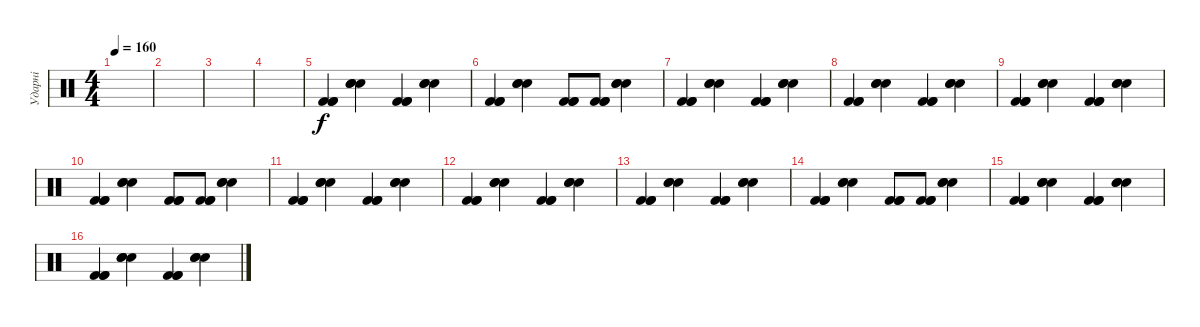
\track ("Ударні" "Ударні") {instrument percussion}
\staff {score}
\articulation defaults
\ts (4 4)
\tempo 160
\clef neutral
\ks c
|
|
|
|
("Kick (hit) 2" "Kick (hit) 2" "Kick (hit) 2").4 ("Snare (hit) 2" "Snare (hit) 2" "Snare (hit) 2").4 ("Kick (hit) 2" "Kick (hit) 2" "Kick (hit) 2").4 ("Snare (hit) 2" "Snare (hit) 2" "Snare (hit) 2").4 |
("Kick (hit) 2" "Kick (hit) 2" "Kick (hit) 2").4 ("Snare (hit) 2" "Snare (hit) 2" "Snare (hit) 2").4 ("Kick (hit) 2" "Kick (hit) 2" "Kick (hit) 2").8 ("Kick (hit) 2" "Kick (hit) 2" "Kick (hit) 2").8 ("Snare (hit) 2" "Snare (hit) 2" "Snare (hit) 2").4 |
("Kick (hit) 2" "Kick (hit) 2" "Kick (hit) 2").4 ("Snare (hit) 2" "Snare (hit) 2" "Snare (hit) 2").4 ("Kick (hit) 2" "Kick (hit) 2" "Kick (hit) 2").4 ("Snare (hit) 2" "Snare (hit) 2" "Snare (hit) 2").4 |
("Kick (hit) 2" "Kick (hit) 2" "Kick (hit) 2").4 ("Snare (hit) 2" "Snare (hit) 2" "Snare (hit) 2").4 ("Kick (hit) 2" "Kick (hit) 2" "Kick (hit) 2").4 ("Snare (hit) 2" "Snare (hit) 2" "Snare (hit) 2").4 |
("Kick (hit) 2" "Kick (hit) 2" "Kick (hit) 2").4 ("Snare (hit) 2" "Snare (hit) 2" "Snare (hit) 2").4 ("Kick (hit) 2" "Kick (hit) 2" "Kick (hit) 2").4 ("Snare (hit) 2" "Snare (hit) 2" "Snare (hit) 2").4 |
("Kick (hit) 2" "Kick (hit) 2" "Kick (hit) 2").4 ("Snare (hit) 2" "Snare (hit) 2" "Snare (hit) 2").4 ("Kick (hit) 2" "Kick (hit) 2" "Kick (hit) 2").8 ("Kick (hit) 2" "Kick (hit) 2" "Kick (hit) 2").8 ("Snare (hit) 2" "Snare (hit) 2" "Snare (hit) 2").4 |
("Kick (hit) 2" "Kick (hit) 2" "Kick (hit) 2").4 ("Snare (hit) 2" "Snare (hit) 2" "Snare (hit) 2").4 ("Kick (hit) 2" "Kick (hit) 2" "Kick (hit) 2").4 ("Snare (hit) 2" "Snare (hit) 2" "Snare (hit) 2").4 |
("Kick (hit) 2" "Kick (hit) 2" "Kick (hit) 2").4 ("Snare (hit) 2" "Snare (hit) 2" "Snare (hit) 2").4 ("Kick (hit) 2" "Kick (hit) 2" "Kick (hit) 2").4 ("Snare (hit) 2" "Snare (hit) 2" "Snare (hit) 2").4 |
("Kick (hit) 2" "Kick (hit) 2" "Kick (hit) 2").4 ("Snare (hit) 2" "Snare (hit) 2" "Snare (hit) 2").4 ("Kick (hit) 2" "Kick (hit) 2" "Kick (hit) 2").4 ("Snare (hit) 2" "Snare (hit) 2" "Snare (hit) 2").4 |
("Kick (hit) 2" "Kick (hit) 2" "Kick (hit) 2").4 ("Snare (hit) 2" "Snare (hit) 2" "Snare (hit) 2").4 ("Kick (hit) 2" "Kick (hit) 2" "Kick (hit) 2").8 ("Kick (hit) 2" "Kick (hit) 2" "Kick (hit) 2").8 ("Snare (hit) 2" "Snare (hit) 2" "Snare (hit) 2").4 |
("Kick (hit) 2" "Kick (hit) 2" "Kick (hit) 2").4 ("Snare (hit) 2" "Snare (hit) 2" "Snare (hit) 2").4 ("Kick (hit) 2" "Kick (hit) 2" "Kick (hit) 2").4 ("Snare (hit) 2" "Snare (hit) 2" "Snare (hit) 2").4 |
("Kick (hit) 2" "Kick (hit) 2" "Kick (hit) 2").4 ("Snare (hit) 2" "Snare (hit) 2" "Snare (hit) 2").4 ("Kick (hit) 2" "Kick (hit) 2" "Kick (hit) 2").4 ("Snare (hit) 2" "Snare (hit) 2" "Snare (hit) 2").4
